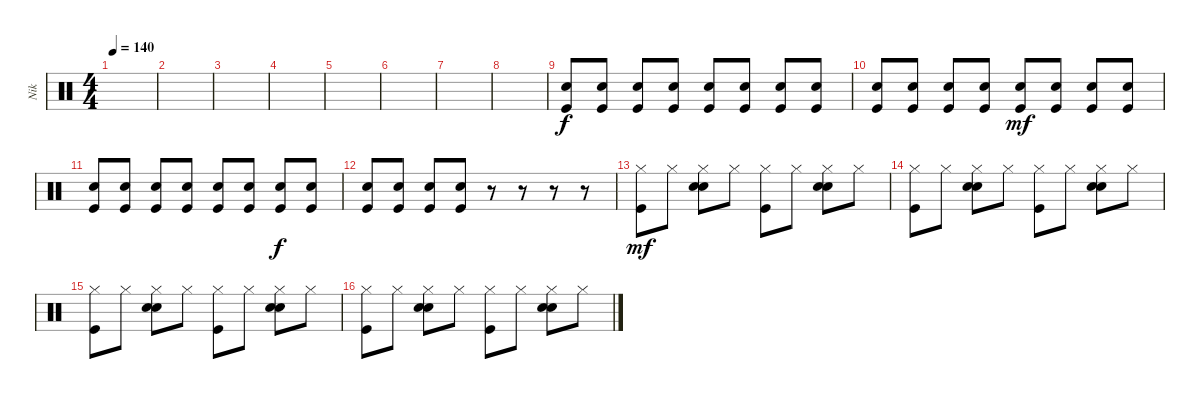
\track ("Nik" "Nik") {instrument percussion}
\staff {score}
\articulation defaults
\ts (4 4)
\tempo 140
\clef neutral
\ks c
|
|
|
|
|
|
|
|
("Kick (hit)" "Electric Snare (hit)").8 ("Kick (hit)" "Electric Snare (hit)").8 ("Kick (hit)" "Electric Snare (hit)").8 ("Kick (hit)" "Electric Snare (hit)").8 ("Kick (hit)" "Electric Snare (hit)").8 ("Kick (hit)" "Electric Snare (hit)").8 ("Kick (hit)" "Electric Snare (hit)").8 ("Kick (hit)" "Electric Snare (hit)").8 |
("Kick (hit)" "Electric Snare (hit)").8 ("Kick (hit)" "Electric Snare (hit)").8 ("Kick (hit)" "Electric Snare (hit)").8 ("Kick (hit)" "Electric Snare (hit)").8 ("Kick (hit)" "Electric Snare (hit)").8{dy mf} ("Kick (hit)" "Electric Snare (hit)").8 ("Kick (hit)" "Electric Snare (hit)").8 ("Kick (hit)" "Electric Snare (hit)").8 |
("Kick (hit)" "Electric Snare (hit)").8 ("Kick (hit)" "Electric Snare (hit)").8 ("Kick (hit)" "Electric Snare (hit)").8 ("Kick (hit)" "Electric Snare (hit)").8 ("Kick (hit)" "Electric Snare (hit)").8 ("Kick (hit)" "Electric Snare (hit)").8 ("Kick (hit)" "Electric Snare (hit)").8{dy f} ("Kick (hit)" "Electric Snare (hit)").8 |
("Kick (hit)" "Electric Snare (hit)").8 ("Kick (hit)" "Electric Snare (hit)").8 ("Kick (hit)" "Electric Snare (hit)").8 ("Kick (hit)" "Electric Snare (hit)").8 r.8 r.8 r.8 r.8 |
("Kick (hit)" "Hi-Hat (closed)").8{dy mf} "Hi-Hat (closed)".8 ("Electric Snare (hit)" "Electric Snare (hit)" "Hi-Hat (closed)").8 "Hi-Hat (closed)".8 ("Kick (hit)" "Hi-Hat (closed)").8 "Hi-Hat (closed)".8 ("Electric Snare (hit)" "Electric Snare (hit)" "Hi-Hat (closed)").8 "Hi-Hat (closed)".8 |
("Kick (hit)" "Hi-Hat (closed)").8 "Hi-Hat (closed)".8 ("Electric Snare (hit)" "Electric Snare (hit)" "Hi-Hat (closed)").8 "Hi-Hat (closed)".8 ("Kick (hit)" "Hi-Hat (closed)").8 "Hi-Hat (closed)".8 ("Electric Snare (hit)" "Electric Snare (hit)" "Hi-Hat (closed)").8 "Hi-Hat (closed)".8 |
("Kick (hit)" "Hi-Hat (closed)").8 "Hi-Hat (closed)".8 ("Electric Snare (hit)" "Electric Snare (hit)" "Hi-Hat (closed)").8 "Hi-Hat (closed)".8 ("Kick (hit)" "Hi-Hat (closed)").8 "Hi-Hat (closed)".8 ("Electric Snare (hit)" "Electric Snare (hit)" "Hi-Hat (closed)").8 "Hi-Hat (closed)".8 |
("Kick (hit)" "Hi-Hat (closed)").8 "Hi-Hat (closed)".8 ("Electric Snare (hit)" "Electric Snare (hit)" "Hi-Hat (closed)").8 "Hi-Hat (closed)".8 ("Kick (hit)" "Hi-Hat (closed)").8 "Hi-Hat (closed)".8 ("Electric Snare (hit)" "Electric Snare (hit)" "Hi-Hat (closed)").8 "Hi-Hat (closed)".8
